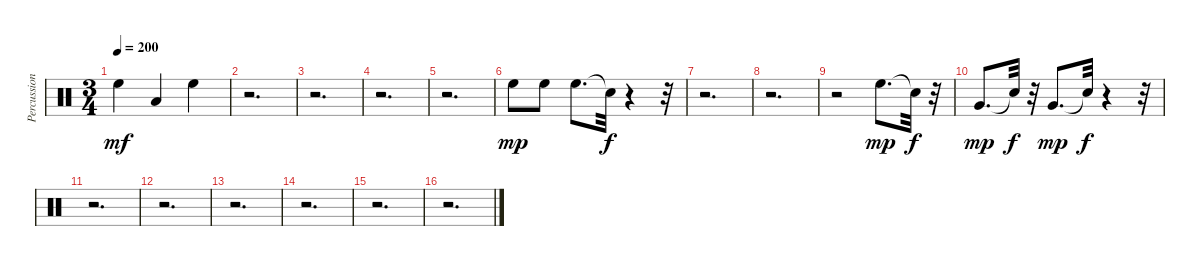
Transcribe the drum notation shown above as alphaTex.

\track ("Percussion." "Percussion") {instrument percussion}
\staff {score}
\articulation defaults
\ts (3 4)
\tempo 200
\clef neutral
\ks c "High Floor Tom (hit)".4{dy mf} "Low Tom (hit)".4 "High Floor Tom (hit)".4
|
r.2{d} |
r.2{d} |
r.2{d} |
r.2{d} |
"High Floor Tom (hit)".8{dy mp} "High Floor Tom (hit)".8 "High Floor Tom (hit)".8{d} "Snare (hit)"{t}.32{dy f} r.4 r.32 |
r.2{d} |
r.2{d} |
r.2 "High Floor Tom (hit)".8{d dy mp} "Snare (hit)"{t}.32{dy f} r.32 |
"Very Low Tom (hit)".8{d dy mp} "Snare (hit)"{t}.32{dy f} r.32 "Very Low Tom (hit)".8{d dy mp} "Snare (hit)"{t}.32{dy f} r.4 r.32 |
r.2{d} |
r.2{d} |
r.2{d} |
r.2{d} |
r.2{d} |
r.2{d}
